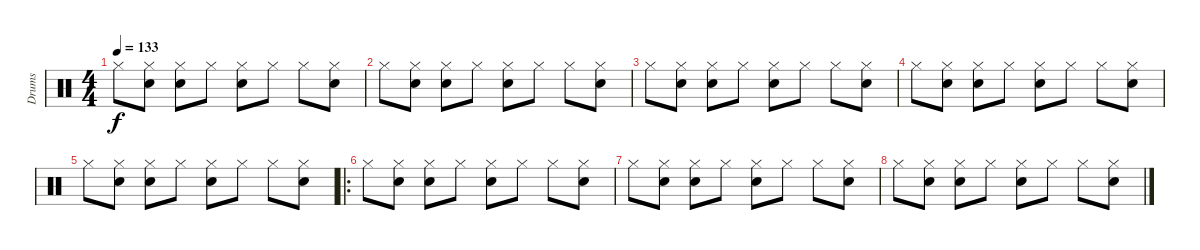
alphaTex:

\track ("Drums" "Drums") {instrument percussion}
\staff {score}
\articulation defaults
\ts (4 4)
\tempo 133
\clef neutral
\ks c "Hi-Hat (closed)".8{dy f}
("Hi-Hat (closed)" "Snare (hit) 2").8 ("Hi-Hat (closed)" "Snare (hit) 2").8 "Hi-Hat (closed)".8 ("Hi-Hat (closed)" "Electric Snare (hit)").8 "Hi-Hat (closed)".8 "Hi-Hat (closed)".8 ("Hi-Hat (closed)" "Electric Snare (hit)").8 |
"Hi-Hat (closed)".8 ("Hi-Hat (closed)" "Snare (hit) 2").8 ("Hi-Hat (closed)" "Snare (hit) 2").8 "Hi-Hat (closed)".8 ("Hi-Hat (closed)" "Electric Snare (hit)").8 "Hi-Hat (closed)".8 "Hi-Hat (closed)".8 ("Hi-Hat (closed)" "Electric Snare (hit)").8 |
"Hi-Hat (closed)".8 ("Hi-Hat (closed)" "Snare (hit) 2").8 ("Hi-Hat (closed)" "Snare (hit) 2").8 "Hi-Hat (closed)".8 ("Hi-Hat (closed)" "Electric Snare (hit)").8 "Hi-Hat (closed)".8 "Hi-Hat (closed)".8 ("Hi-Hat (closed)" "Electric Snare (hit)").8 |
"Hi-Hat (closed)".8 ("Hi-Hat (closed)" "Snare (hit) 2").8 ("Hi-Hat (closed)" "Snare (hit) 2").8 "Hi-Hat (closed)".8 ("Hi-Hat (closed)" "Electric Snare (hit)").8 "Hi-Hat (closed)".8 "Hi-Hat (closed)".8 ("Hi-Hat (closed)" "Electric Snare (hit)").8 |
"Hi-Hat (closed)".8 ("Hi-Hat (closed)" "Snare (hit) 2").8 ("Hi-Hat (closed)" "Snare (hit) 2").8 "Hi-Hat (closed)".8 ("Hi-Hat (closed)" "Electric Snare (hit)").8 "Hi-Hat (closed)".8 "Hi-Hat (closed)".8 ("Hi-Hat (closed)" "Electric Snare (hit)").8 |
\ro "Hi-Hat (closed)".8
("Hi-Hat (closed)" "Snare (hit) 2").8 ("Hi-Hat (closed)" "Snare (hit) 2").8 "Hi-Hat (closed)".8 ("Hi-Hat (closed)" "Electric Snare (hit)").8 "Hi-Hat (closed)".8 "Hi-Hat (closed)".8 ("Hi-Hat (closed)" "Electric Snare (hit)").8 |
"Hi-Hat (closed)".8 ("Hi-Hat (closed)" "Snare (hit) 2").8 ("Hi-Hat (closed)" "Snare (hit) 2").8 "Hi-Hat (closed)".8 ("Hi-Hat (closed)" "Electric Snare (hit)").8 "Hi-Hat (closed)".8 "Hi-Hat (closed)".8 ("Hi-Hat (closed)" "Electric Snare (hit)").8 |
"Hi-Hat (closed)".8 ("Hi-Hat (closed)" "Snare (hit) 2").8 ("Hi-Hat (closed)" "Snare (hit) 2").8 "Hi-Hat (closed)".8 ("Hi-Hat (closed)" "Electric Snare (hit)").8 "Hi-Hat (closed)".8 "Hi-Hat (closed)".8 ("Hi-Hat (closed)" "Electric Snare (hit)").8
